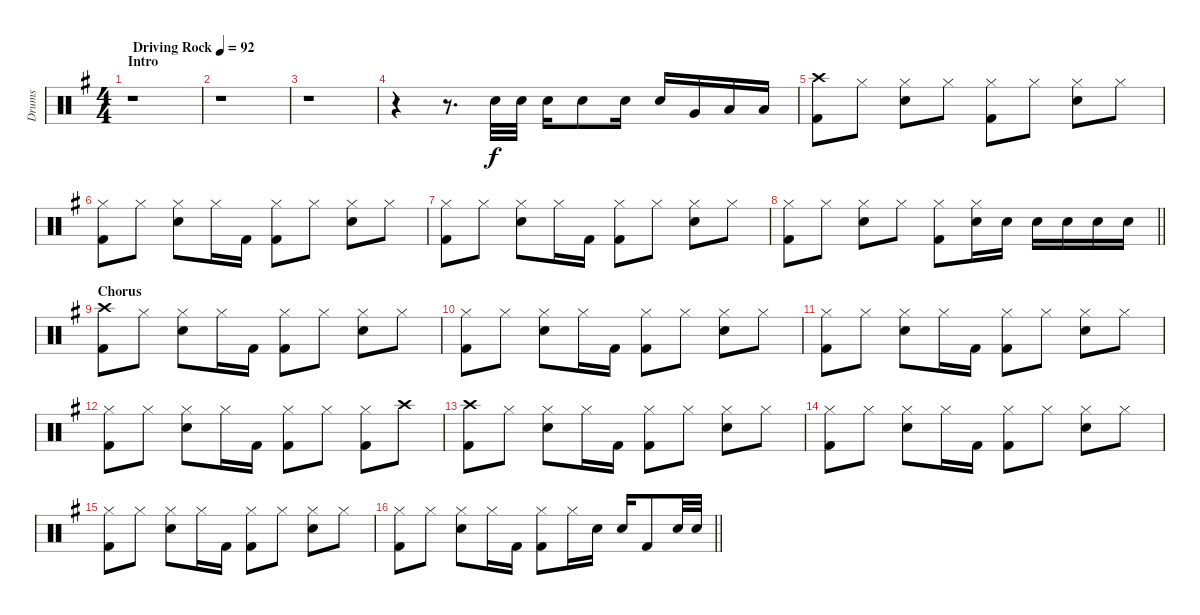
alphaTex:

\track ("Drums" "Drums") {instrument percussion}
\staff {score}
\articulation defaults
\ts (4 4)
\section ("" "Intro")
\tempo (92 "Driving Rock")
\clef neutral
\ks eminor
r.1{dy f} |
r.1 |
r.1 |
r.4 r.8{d} "Electric Snare (hit)".32 "Electric Snare (hit)".32 "Electric Snare (hit)".16 "Electric Snare (hit)".8 "Electric Snare (hit)".16 "Electric Snare (hit)".16 "Very Low Tom (hit)".16 "Low Floor Tom (hit)".16 "Low Floor Tom (hit)".16 |
("Crash high (hit)" "Kick (hit) 2").8 "Hi-Hat (closed)".8 ("Hi-Hat (closed)" "Electric Snare (hit)").8 "Hi-Hat (closed)".8 ("Hi-Hat (closed)" "Kick (hit) 2").8 "Hi-Hat (closed)".8 ("Hi-Hat (closed)" "Electric Snare (hit)").8 "Hi-Hat (closed)".8 |
("Hi-Hat (closed)" "Kick (hit) 2").8 "Hi-Hat (closed)".8 ("Hi-Hat (closed)" "Electric Snare (hit)").8 "Hi-Hat (closed)".16 "Kick (hit) 2".16 ("Hi-Hat (closed)" "Kick (hit) 2").8 "Hi-Hat (closed)".8 ("Hi-Hat (closed)" "Electric Snare (hit)").8 "Hi-Hat (closed)".8 |
("Hi-Hat (closed)" "Kick (hit) 2").8 "Hi-Hat (closed)".8 ("Hi-Hat (closed)" "Electric Snare (hit)").8 "Hi-Hat (closed)".16 "Kick (hit) 2".16 ("Hi-Hat (closed)" "Kick (hit) 2").8 "Hi-Hat (closed)".8 ("Hi-Hat (closed)" "Electric Snare (hit)").8 "Hi-Hat (closed)".8 |
\barLineRight lightlight
("Hi-Hat (closed)" "Kick (hit) 2").8 "Hi-Hat (closed)".8 ("Hi-Hat (closed)" "Electric Snare (hit)").8 "Hi-Hat (closed)".8 ("Hi-Hat (closed)" "Kick (hit) 2").8 ("Hi-Hat (closed)" "Electric Snare (hit)").16 "Electric Snare (hit)".16 "Electric Snare (hit)".16 "Electric Snare (hit)".16 "Electric Snare (hit)".16 "Electric Snare (hit)".16 |
\section ("" "Chorus")
("Crash high (hit)" "Kick (hit) 2").8 "Hi-Hat (closed)".8 ("Hi-Hat (closed)" "Electric Snare (hit)").8 "Hi-Hat (closed)".16 "Kick (hit) 2".16 ("Hi-Hat (closed)" "Kick (hit) 2").8 "Hi-Hat (closed)".8 ("Hi-Hat (closed)" "Electric Snare (hit)").8 "Hi-Hat (closed)".8 |
("Hi-Hat (closed)" "Kick (hit) 2").8 "Hi-Hat (closed)".8 ("Hi-Hat (closed)" "Electric Snare (hit)").8 "Hi-Hat (closed)".16 "Kick (hit) 2".16 ("Hi-Hat (closed)" "Kick (hit) 2").8 "Hi-Hat (closed)".8 ("Hi-Hat (closed)" "Electric Snare (hit)").8 "Hi-Hat (closed)".8 |
("Hi-Hat (closed)" "Kick (hit) 2").8 "Hi-Hat (closed)".8 ("Hi-Hat (closed)" "Electric Snare (hit)").8 "Hi-Hat (closed)".16 "Kick (hit) 2".16 ("Hi-Hat (closed)" "Kick (hit) 2").8 "Hi-Hat (closed)".8 ("Hi-Hat (closed)" "Electric Snare (hit)").8 "Hi-Hat (closed)".8 |
("Hi-Hat (closed)" "Kick (hit) 2").8 "Hi-Hat (closed)".8 ("Hi-Hat (closed)" "Electric Snare (hit)").8 "Hi-Hat (closed)".16 "Kick (hit) 2".16 ("Hi-Hat (closed)" "Kick (hit) 2").8 "Hi-Hat (closed)".8 ("Hi-Hat (closed)" "Kick (hit) 2").8 "Crash high (hit)".8 |
("Crash high (hit)" "Kick (hit) 2").8 "Hi-Hat (closed)".8 ("Hi-Hat (closed)" "Electric Snare (hit)").8 "Hi-Hat (closed)".16 "Kick (hit) 2".16 ("Hi-Hat (closed)" "Kick (hit) 2").8 "Hi-Hat (closed)".8 ("Hi-Hat (closed)" "Electric Snare (hit)").8 "Hi-Hat (closed)".8 |
("Hi-Hat (closed)" "Kick (hit) 2").8 "Hi-Hat (closed)".8 ("Hi-Hat (closed)" "Electric Snare (hit)").8 "Hi-Hat (closed)".16 "Kick (hit) 2".16 ("Hi-Hat (closed)" "Kick (hit) 2").8 "Hi-Hat (closed)".8 ("Hi-Hat (closed)" "Electric Snare (hit)").8 "Hi-Hat (closed)".8 |
("Hi-Hat (closed)" "Kick (hit) 2").8 "Hi-Hat (closed)".8 ("Hi-Hat (closed)" "Electric Snare (hit)").8 "Hi-Hat (closed)".16 "Kick (hit) 2".16 ("Hi-Hat (closed)" "Kick (hit) 2").8 "Hi-Hat (closed)".8 ("Hi-Hat (closed)" "Electric Snare (hit)").8 "Hi-Hat (closed)".8 |
\barLineRight lightlight
("Hi-Hat (closed)" "Kick (hit) 2").8 "Hi-Hat (closed)".8 ("Hi-Hat (closed)" "Electric Snare (hit)").8 "Hi-Hat (closed)".16 "Kick (hit) 2".16 ("Hi-Hat (closed)" "Kick (hit) 2").8 "Hi-Hat (closed)".16 "Electric Snare (hit)".16 "Electric Snare (hit)".16 "Kick (hit) 2".8 "Electric Snare (hit)".32 "Electric Snare (hit)".32
